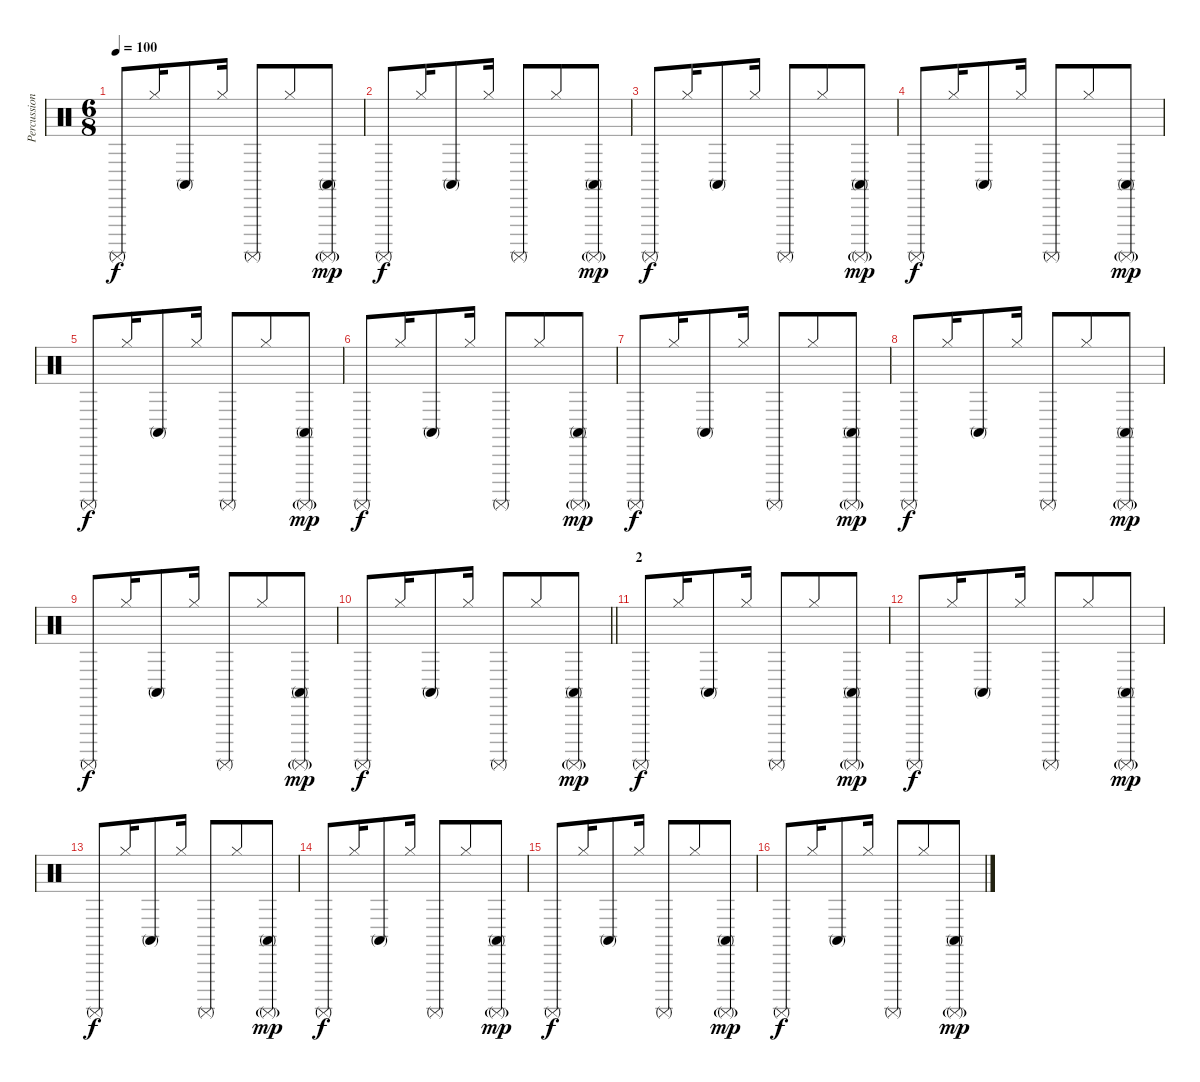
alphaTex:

\track ("Percussion" "Percussion") {instrument percussion}
\staff {score}
\articulation defaults
\ts (6 8)
\tempo 100
\clef neutral
\ks c "Surdo (mute)".8{dy f} "Hi-Hat (closed)".16 "Conga high (mute)".8 "Hi-Hat (closed)".16 "Surdo (mute)".8 "Hi-Hat (closed)".8
("Conga high (mute)" "Surdo (mute)"{g}).8{dy mp} |
"Surdo (mute)".8{dy f} "Hi-Hat (closed)".16 "Conga high (mute)".8 "Hi-Hat (closed)".16 "Surdo (mute)".8 "Hi-Hat (closed)".8 ("Conga high (mute)" "Surdo (mute)"{g}).8{dy mp} |
"Surdo (mute)".8{dy f} "Hi-Hat (closed)".16 "Conga high (mute)".8 "Hi-Hat (closed)".16 "Surdo (mute)".8 "Hi-Hat (closed)".8 ("Conga high (mute)" "Surdo (mute)"{g}).8{dy mp} |
"Surdo (mute)".8{dy f} "Hi-Hat (closed)".16 "Conga high (mute)".8 "Hi-Hat (closed)".16 "Surdo (mute)".8 "Hi-Hat (closed)".8 ("Conga high (mute)" "Surdo (mute)"{g}).8{dy mp} |
"Surdo (mute)".8{dy f} "Hi-Hat (closed)".16 "Conga high (mute)".8 "Hi-Hat (closed)".16 "Surdo (mute)".8 "Hi-Hat (closed)".8 ("Conga high (mute)" "Surdo (mute)"{g}).8{dy mp} |
"Surdo (mute)".8{dy f} "Hi-Hat (closed)".16 "Conga high (mute)".8 "Hi-Hat (closed)".16 "Surdo (mute)".8 "Hi-Hat (closed)".8 ("Conga high (mute)" "Surdo (mute)"{g}).8{dy mp} |
"Surdo (mute)".8{dy f} "Hi-Hat (closed)".16 "Conga high (mute)".8 "Hi-Hat (closed)".16 "Surdo (mute)".8 "Hi-Hat (closed)".8 ("Conga high (mute)" "Surdo (mute)"{g}).8{dy mp} |
"Surdo (mute)".8{dy f} "Hi-Hat (closed)".16 "Conga high (mute)".8 "Hi-Hat (closed)".16 "Surdo (mute)".8 "Hi-Hat (closed)".8 ("Conga high (mute)" "Surdo (mute)"{g}).8{dy mp} |
"Surdo (mute)".8{dy f} "Hi-Hat (closed)".16 "Conga high (mute)".8 "Hi-Hat (closed)".16 "Surdo (mute)".8 "Hi-Hat (closed)".8 ("Conga high (mute)" "Surdo (mute)"{g}).8{dy mp} |
\barLineRight lightlight "Surdo (mute)".8{dy f} "Hi-Hat (closed)".16 "Conga high (mute)".8 "Hi-Hat (closed)".16 "Surdo (mute)".8 "Hi-Hat (closed)".8
("Conga high (mute)" "Surdo (mute)"{g}).8{dy mp} |
\section ("" "2")
"Surdo (mute)".8{dy f} "Hi-Hat (closed)".16 "Conga high (mute)".8 "Hi-Hat (closed)".16 "Surdo (mute)".8 "Hi-Hat (closed)".8 ("Conga high (mute)" "Surdo (mute)"{g}).8{dy mp} |
"Surdo (mute)".8{dy f} "Hi-Hat (closed)".16 "Conga high (mute)".8 "Hi-Hat (closed)".16 "Surdo (mute)".8 "Hi-Hat (closed)".8 ("Conga high (mute)" "Surdo (mute)"{g}).8{dy mp} |
"Surdo (mute)".8{dy f} "Hi-Hat (closed)".16 "Conga high (mute)".8 "Hi-Hat (closed)".16 "Surdo (mute)".8 "Hi-Hat (closed)".8 ("Conga high (mute)" "Surdo (mute)"{g}).8{dy mp} |
"Surdo (mute)".8{dy f} "Hi-Hat (closed)".16 "Conga high (mute)".8 "Hi-Hat (closed)".16 "Surdo (mute)".8 "Hi-Hat (closed)".8 ("Conga high (mute)" "Surdo (mute)"{g}).8{dy mp} |
"Surdo (mute)".8{dy f} "Hi-Hat (closed)".16 "Conga high (mute)".8 "Hi-Hat (closed)".16 "Surdo (mute)".8 "Hi-Hat (closed)".8 ("Conga high (mute)" "Surdo (mute)"{g}).8{dy mp} |
"Surdo (mute)".8{dy f} "Hi-Hat (closed)".16 "Conga high (mute)".8 "Hi-Hat (closed)".16 "Surdo (mute)".8 "Hi-Hat (closed)".8 ("Conga high (mute)" "Surdo (mute)"{g}).8{dy mp}
